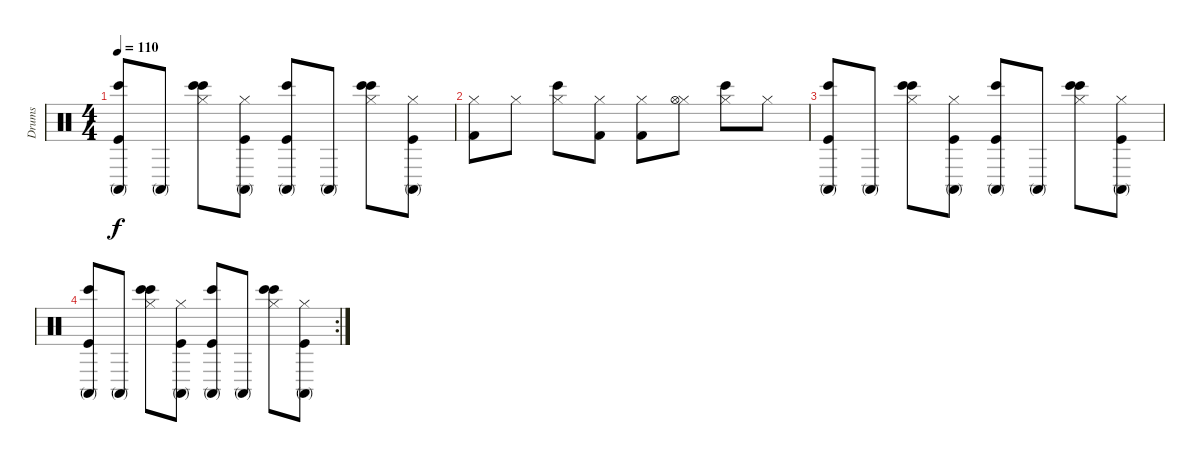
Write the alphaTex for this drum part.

\track ("Drums" "Drums") {instrument percussion}
\staff {score}
\articulation defaults
\ts (4 4)
\tempo 110
\clef neutral
\ks c
("Kick (hit)" "Conga high (mute)" "Bongo High (hit)").8{dy f} "Conga high (mute)".8 ("Hi-Hat (closed)" "Bongo High (hit)" "Bongo High (hit)").8 ("Kick (hit)" "Conga high (mute)" "Hi-Hat (closed)").8 ("Kick (hit)" "Conga high (mute)" "Bongo High (hit)").8 "Conga high (mute)".8 ("Bongo High (hit)" "Hi-Hat (closed)" "Bongo High (hit)").8 ("Kick (hit)" "Conga high (mute)" "Hi-Hat (closed)").8 |
("Kick (hit) 2" "Hi-Hat (closed)").8 "Hi-Hat (closed)".8 ("Bongo High (hit)" "Hi-Hat (closed)").8 ("Kick (hit) 2" "Hi-Hat (closed)").8 ("Kick (hit) 2" "Hi-Hat (closed)").8 ("Hi-Hat (closed)" "Hi-Hat (open)").8 ("Bongo High (hit)" "Hi-Hat (closed)").8 "Hi-Hat (closed)".8 |
("Kick (hit)" "Conga high (mute)" "Bongo High (hit)").8 "Conga high (mute)".8 ("Hi-Hat (closed)" "Bongo High (hit)" "Bongo High (hit)").8 ("Kick (hit)" "Conga high (mute)" "Hi-Hat (closed)").8 ("Kick (hit)" "Conga high (mute)" "Bongo High (hit)").8 "Conga high (mute)".8 ("Bongo High (hit)" "Hi-Hat (closed)" "Bongo High (hit)").8 ("Kick (hit)" "Conga high (mute)" "Hi-Hat (closed)").8 |
\rc 2
("Kick (hit)" "Conga high (mute)" "Bongo High (hit)").8 "Conga high (mute)".8 ("Hi-Hat (closed)" "Bongo High (hit)" "Bongo High (hit)").8 ("Kick (hit)" "Conga high (mute)" "Hi-Hat (closed)").8 ("Kick (hit)" "Conga high (mute)" "Bongo High (hit)").8 "Conga high (mute)".8 ("Bongo High (hit)" "Hi-Hat (closed)" "Bongo High (hit)").8 ("Kick (hit)" "Conga high (mute)" "Hi-Hat (closed)").8
